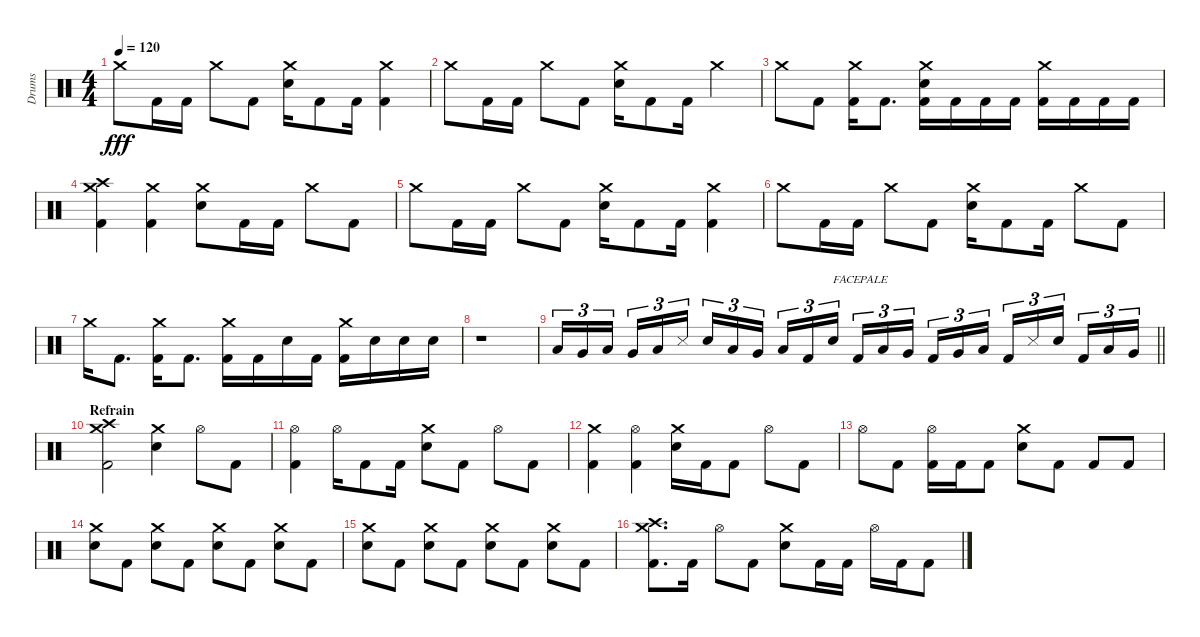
\track ("Drums" "Drums") {instrument percussion}
\staff {score}
\articulation defaults
\ts (4 4)
\tempo 120
\clef neutral
\ks c "Crash medium (hit)".8{dy fff} "Kick (hit) 2".16 "Kick (hit) 2".16 "Crash medium (hit)".8 "Kick (hit) 2".8
("Crash medium (hit)" "Electric Snare (hit)").16 "Kick (hit) 2".8 "Kick (hit) 2".16 ("Crash medium (hit)" "Kick (hit) 2").4 |
"Crash medium (hit)".8 "Kick (hit) 2".16 "Kick (hit) 2".16 "Crash medium (hit)".8 "Kick (hit) 2".8 ("Crash medium (hit)" "Electric Snare (hit)").16 "Kick (hit) 2".8 "Kick (hit) 2".16 "Crash medium (hit)".4 |
"Crash medium (hit)".8 "Kick (hit) 2".8 ("Crash medium (hit)" "Kick (hit) 2").16 "Kick (hit) 2".8{d} ("Crash medium (hit)" "Electric Snare (hit)" "Kick (hit) 2").16 "Kick (hit) 2".16 "Kick (hit) 2".16 "Kick (hit) 2".16 ("Crash medium (hit)" "Kick (hit) 2").16 "Kick (hit) 2".16 "Kick (hit) 2".16 "Kick (hit) 2".16 |
("Crash medium (hit)" "Crash high (hit)" "Kick (hit) 2").4 ("Crash medium (hit)" "Kick (hit) 2").4 ("Crash medium (hit)" "Electric Snare (hit)").8 "Kick (hit) 2".16 "Kick (hit) 2".16 "Crash medium (hit)".8 "Kick (hit) 2".8 |
"Crash medium (hit)".8 "Kick (hit) 2".16 "Kick (hit) 2".16 "Crash medium (hit)".8 "Kick (hit) 2".8 ("Crash medium (hit)" "Electric Snare (hit)").16 "Kick (hit) 2".8 "Kick (hit) 2".16 ("Crash medium (hit)" "Kick (hit) 2").4 |
"Crash medium (hit)".8 "Kick (hit) 2".16 "Kick (hit) 2".16 "Crash medium (hit)".8 "Kick (hit) 2".8 ("Crash medium (hit)" "Electric Snare (hit)").16 "Kick (hit) 2".8 "Kick (hit) 2".16 "Crash medium (hit)".8 "Kick (hit) 2".8 |
"Crash medium (hit)".16 "Kick (hit) 2".8{d} ("Crash medium (hit)" "Kick (hit) 2").16 "Kick (hit) 2".8{d} ("Crash medium (hit)" "Kick (hit) 2").16 "Kick (hit) 2".16 "Electric Snare (hit)".16 "Kick (hit) 2".16 ("Crash medium (hit)" "Kick (hit) 2").16 "Electric Snare (hit)".16 "Electric Snare (hit)".16 "Electric Snare (hit)".16 |
r.1 |
\barLineRight lightlight "Low Tom (hit)".16{tu (3 2)} "Very Low Tom (hit)".16{tu (3 2)} "Low Floor Tom (hit)".16{tu (3 2) beam splitsecondary} "Very Low Tom (hit)".16{tu (3 2)} "Low Floor Tom (hit)".16{tu (3 2)} "Snare (side stick) 3".16{tu (3 2)} "Electric Snare (hit)".16{tu (3 2)} "Low Tom (hit)".16{tu (3 2)} "Very Low Tom (hit)".16{tu (3 2) beam splitsecondary} "Low Floor Tom (hit)".16{tu (3 2)} "Kick (hit) 2".16{tu (3 2)} "Electric Snare (hit)".16{tu (3 2) txt "FACEPALE"} "Kick (hit) 2".16{tu (3 2)} "Low Tom (hit)".16{tu (3 2)} "Very Low Tom (hit)".16{tu (3 2) beam splitsecondary} "Kick (hit) 2".16{tu (3 2)} "Very Low Tom (hit)".16{tu (3 2)} "Low Floor Tom (hit)".16{tu (3 2)} "Kick (hit) 2".16{tu (3 2)} "Snare (side stick) 3".16{tu (3 2)} "Electric Snare (hit)".16{tu (3 2) beam splitsecondary} "Kick (hit) 2".16{tu (3 2)} "Low Tom (hit)".16{tu (3 2)} "Very Low Tom (hit)".16{tu (3 2)}
|
\section ("" "Refrain")
("Crash medium (hit)" "Crash high (hit)" "Kick (hit) 2").2 ("Crash medium (hit)" "Electric Snare (hit)").4 "Hi-Hat (open)".8 "Kick (hit) 2".8 |
("Hi-Hat (open)" "Kick (hit) 2").4 "Hi-Hat (open)".16 "Kick (hit) 2".8 "Kick (hit) 2".16 ("Crash medium (hit)" "Electric Snare (hit)").8 "Kick (hit) 2".8 "Hi-Hat (open)".8 "Kick (hit) 2".8 |
("Crash medium (hit)" "Kick (hit) 2").4 ("Hi-Hat (open)" "Kick (hit) 2").4 ("Crash medium (hit)" "Electric Snare (hit)").16 "Kick (hit) 2".16 "Kick (hit) 2".8 "Hi-Hat (open)".8 "Kick (hit) 2".8 |
"Hi-Hat (open)".8 "Kick (hit) 2".8 ("Hi-Hat (open)" "Kick (hit) 2").16 "Kick (hit) 2".16 "Kick (hit) 2".8 ("Crash medium (hit)" "Electric Snare (hit)").8 "Kick (hit) 2".8 "Kick (hit) 2".8 "Kick (hit) 2".8 |
("Crash medium (hit)" "Electric Snare (hit)").8 "Kick (hit) 2".8 ("Crash medium (hit)" "Electric Snare (hit)").8 "Kick (hit) 2".8 ("Crash medium (hit)" "Electric Snare (hit)").8 "Kick (hit) 2".8 ("Crash medium (hit)" "Electric Snare (hit)").8 "Kick (hit) 2".8 |
("Crash medium (hit)" "Electric Snare (hit)").8 "Kick (hit) 2".8 ("Crash medium (hit)" "Electric Snare (hit)").8 "Kick (hit) 2".8 ("Crash medium (hit)" "Electric Snare (hit)").8 "Kick (hit) 2".8 ("Crash medium (hit)" "Electric Snare (hit)").8 "Kick (hit) 2".8 |
("Crash medium (hit)" "Crash high (hit)" "Kick (hit) 2").8{d} "Kick (hit) 2".16 "Hi-Hat (open)".8 "Kick (hit) 2".8 ("Crash medium (hit)" "Electric Snare (hit)").8 "Kick (hit) 2".16 "Kick (hit) 2".16 "Hi-Hat (open)".16 "Kick (hit) 2".16 "Kick (hit) 2".8
